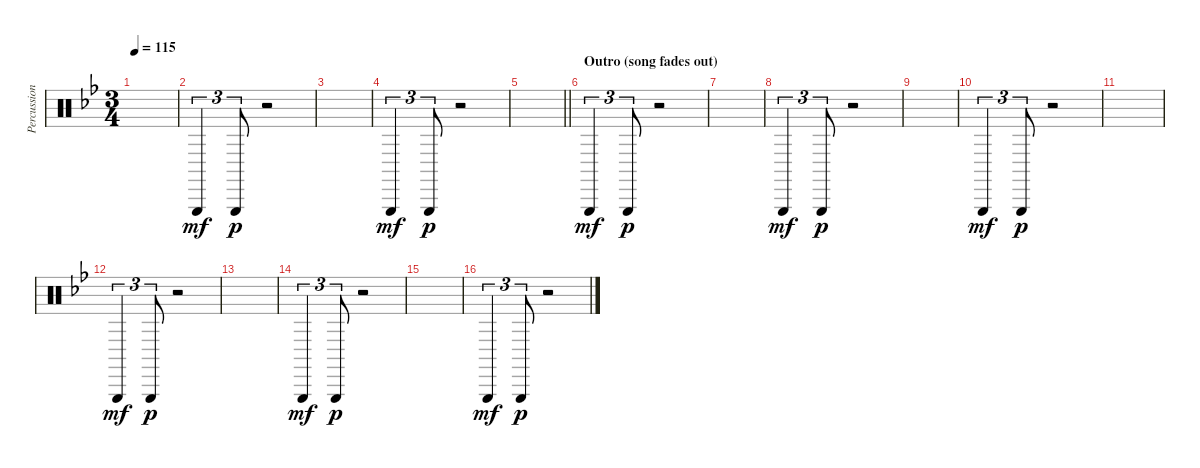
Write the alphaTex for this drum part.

\track ("Percussion" "Percussion") {instrument percussion}
\staff {score}
\articulation defaults
\ts (3 4)
\tempo 115
\clef neutral
\ks gminor
|
"Triangle (hit)".4{tu (3 2) dy mf} "Triangle (hit)".8{tu (3 2) dy p} r.2 |
|
"Triangle (hit)".4{tu (3 2) dy mf} "Triangle (hit)".8{tu (3 2) dy p} r.2 |
\barLineRight lightlight
|
\section ("" "Outro (song fades out)")
"Triangle (hit)".4{tu (3 2) dy mf} "Triangle (hit)".8{tu (3 2) dy p} r.2 |
|
"Triangle (hit)".4{tu (3 2) dy mf} "Triangle (hit)".8{tu (3 2) dy p} r.2 |
|
"Triangle (hit)".4{tu (3 2) dy mf} "Triangle (hit)".8{tu (3 2) dy p} r.2 |
|
"Triangle (hit)".4{tu (3 2) dy mf} "Triangle (hit)".8{tu (3 2) dy p} r.2 |
|
"Triangle (hit)".4{tu (3 2) dy mf} "Triangle (hit)".8{tu (3 2) dy p} r.2 |
|
"Triangle (hit)".4{tu (3 2) dy mf} "Triangle (hit)".8{tu (3 2) dy p} r.2
